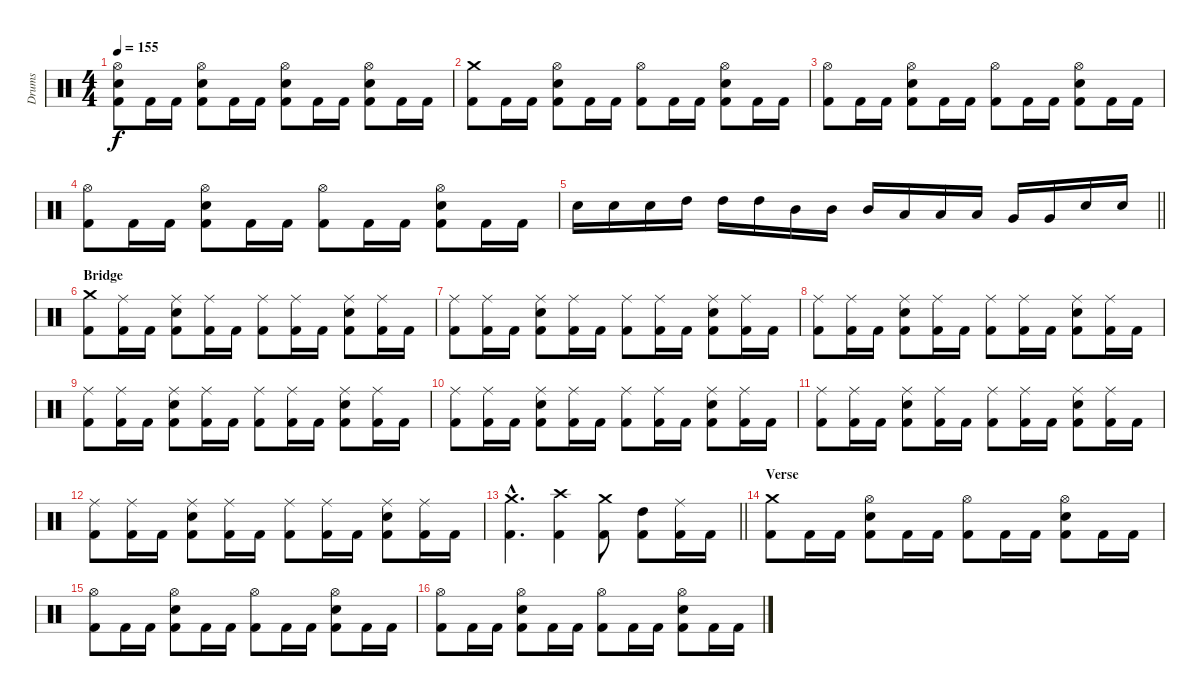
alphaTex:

\track ("Drums" "Drums") {instrument percussion}
\staff {score}
\articulation defaults
\ts (4 4)
\tempo 155
\clef neutral
\ks c
("Hi-Hat (open)" "Electric Snare (hit)" "Kick (hit) 2").8{dy f} "Kick (hit) 2".16 "Kick (hit) 2".16 ("Hi-Hat (open)" "Electric Snare (hit)" "Kick (hit) 2").8 "Kick (hit) 2".16 "Kick (hit) 2".16 ("Hi-Hat (open)" "Electric Snare (hit)" "Kick (hit) 2").8 "Kick (hit) 2".16 "Kick (hit) 2".16 ("Hi-Hat (open)" "Electric Snare (hit)" "Kick (hit) 2").8 "Kick (hit) 2".16 "Kick (hit) 2".16 |
("Crash medium (hit)" "Kick (hit) 2").8 "Kick (hit) 2".16 "Kick (hit) 2".16 ("Hi-Hat (open)" "Electric Snare (hit)" "Kick (hit) 2").8 "Kick (hit) 2".16 "Kick (hit) 2".16 ("Hi-Hat (open)" "Kick (hit) 2").8 "Kick (hit) 2".16 "Kick (hit) 2".16 ("Hi-Hat (open)" "Electric Snare (hit)" "Kick (hit) 2").8 "Kick (hit) 2".16 "Kick (hit) 2".16 |
("Hi-Hat (open)" "Kick (hit) 2").8 "Kick (hit) 2".16 "Kick (hit) 2".16 ("Hi-Hat (open)" "Electric Snare (hit)" "Kick (hit) 2").8 "Kick (hit) 2".16 "Kick (hit) 2".16 ("Hi-Hat (open)" "Kick (hit) 2").8 "Kick (hit) 2".16 "Kick (hit) 2".16 ("Hi-Hat (open)" "Electric Snare (hit)" "Kick (hit) 2").8 "Kick (hit) 2".16 "Kick (hit) 2".16 |
("Hi-Hat (open)" "Kick (hit) 2").8 "Kick (hit) 2".16 "Kick (hit) 2".16 ("Hi-Hat (open)" "Electric Snare (hit)" "Kick (hit) 2").8 "Kick (hit) 2".16 "Kick (hit) 2".16 ("Hi-Hat (open)" "Kick (hit) 2").8 "Kick (hit) 2".16 "Kick (hit) 2".16 ("Hi-Hat (open)" "Electric Snare (hit)" "Kick (hit) 2").8 "Kick (hit) 2".16 "Kick (hit) 2".16 |
\barLineRight lightlight "Electric Snare (hit)".16 "Electric Snare (hit)".16 "Electric Snare (hit)".16 "High Tom (hit)".16 "High Tom (hit)".16 "High Tom (hit)".16 "Mid Tom (hit)".16 "Mid Tom (hit)".16 "Mid Tom (hit)".16 "Low Tom (hit)".16 "Low Tom (hit)".16 "Low Tom (hit)".16 "Very Low Tom (hit)".16 "Very Low Tom (hit)".16 "Electric Snare (hit)".16 "Electric Snare (hit)".16
|
\section ("" "Bridge")
("Crash medium (hit)" "Kick (hit) 2").8 ("Ride (middle)" "Kick (hit) 2").16 "Kick (hit) 2".16 ("Ride (middle)" "Electric Snare (hit)" "Kick (hit) 2").8 ("Ride (middle)" "Kick (hit) 2").16 "Kick (hit) 2".16 ("Ride (middle)" "Kick (hit) 2").8 ("Ride (middle)" "Kick (hit) 2").16 "Kick (hit) 2".16 ("Ride (middle)" "Electric Snare (hit)" "Kick (hit) 2").8 ("Ride (middle)" "Kick (hit) 2").16 "Kick (hit) 2".16 |
("Ride (middle)" "Kick (hit) 2").8 ("Ride (middle)" "Kick (hit) 2").16 "Kick (hit) 2".16 ("Ride (middle)" "Electric Snare (hit)" "Kick (hit) 2").8 ("Ride (middle)" "Kick (hit) 2").16 "Kick (hit) 2".16 ("Ride (middle)" "Kick (hit) 2").8 ("Ride (middle)" "Kick (hit) 2").16 "Kick (hit) 2".16 ("Ride (middle)" "Electric Snare (hit)" "Kick (hit) 2").8 ("Ride (middle)" "Kick (hit) 2").16 "Kick (hit) 2".16 |
("Ride (middle)" "Kick (hit) 2").8 ("Ride (middle)" "Kick (hit) 2").16 "Kick (hit) 2".16 ("Ride (middle)" "Electric Snare (hit)" "Kick (hit) 2").8 ("Ride (middle)" "Kick (hit) 2").16 "Kick (hit) 2".16 ("Ride (middle)" "Kick (hit) 2").8 ("Ride (middle)" "Kick (hit) 2").16 "Kick (hit) 2".16 ("Ride (middle)" "Electric Snare (hit)" "Kick (hit) 2").8 ("Ride (middle)" "Kick (hit) 2").16 "Kick (hit) 2".16 |
("Ride (middle)" "Kick (hit) 2").8 ("Ride (middle)" "Kick (hit) 2").16 "Kick (hit) 2".16 ("Ride (middle)" "Electric Snare (hit)" "Kick (hit) 2").8 ("Ride (middle)" "Kick (hit) 2").16 "Kick (hit) 2".16 ("Ride (middle)" "Kick (hit) 2").8 ("Ride (middle)" "Kick (hit) 2").16 "Kick (hit) 2".16 ("Ride (middle)" "Electric Snare (hit)" "Kick (hit) 2").8 ("Ride (middle)" "Kick (hit) 2").16 "Kick (hit) 2".16 |
("Ride (middle)" "Kick (hit) 2").8 ("Ride (middle)" "Kick (hit) 2").16 "Kick (hit) 2".16 ("Ride (middle)" "Electric Snare (hit)" "Kick (hit) 2").8 ("Ride (middle)" "Kick (hit) 2").16 "Kick (hit) 2".16 ("Ride (middle)" "Kick (hit) 2").8 ("Ride (middle)" "Kick (hit) 2").16 "Kick (hit) 2".16 ("Ride (middle)" "Electric Snare (hit)" "Kick (hit) 2").8 ("Ride (middle)" "Kick (hit) 2").16 "Kick (hit) 2".16 |
("Ride (middle)" "Kick (hit) 2").8 ("Ride (middle)" "Kick (hit) 2").16 "Kick (hit) 2".16 ("Ride (middle)" "Electric Snare (hit)" "Kick (hit) 2").8 ("Ride (middle)" "Kick (hit) 2").16 "Kick (hit) 2".16 ("Ride (middle)" "Kick (hit) 2").8 ("Ride (middle)" "Kick (hit) 2").16 "Kick (hit) 2".16 ("Ride (middle)" "Electric Snare (hit)" "Kick (hit) 2").8 ("Ride (middle)" "Kick (hit) 2").16 "Kick (hit) 2".16 |
("Ride (middle)" "Kick (hit) 2").8 ("Ride (middle)" "Kick (hit) 2").16 "Kick (hit) 2".16 ("Ride (middle)" "Electric Snare (hit)" "Kick (hit) 2").8 ("Ride (middle)" "Kick (hit) 2").16 "Kick (hit) 2".16 ("Ride (middle)" "Kick (hit) 2").8 ("Ride (middle)" "Kick (hit) 2").16 "Kick (hit) 2".16 ("Ride (middle)" "Electric Snare (hit)" "Kick (hit) 2").8 ("Ride (middle)" "Kick (hit) 2").16 "Kick (hit) 2".16 |
\barLineRight lightlight
("Crash medium (hit)"{hac} "Kick (hit) 2"{hac}).4{d} ("Crash high (hit)" "Kick (hit) 2").4 ("Crash medium (hit)" "Kick (hit) 2").8 ("High Tom (hit)" "Kick (hit) 2").8 ("Ride (middle)" "Kick (hit) 2").16 "Kick (hit) 2".16 |
\section ("" "Verse")
("Crash medium (hit)" "Kick (hit) 2").8 "Kick (hit) 2".16 "Kick (hit) 2".16 ("Hi-Hat (open)" "Electric Snare (hit)" "Kick (hit) 2").8 "Kick (hit) 2".16 "Kick (hit) 2".16 ("Hi-Hat (open)" "Kick (hit) 2").8 "Kick (hit) 2".16 "Kick (hit) 2".16 ("Hi-Hat (open)" "Electric Snare (hit)" "Kick (hit) 2").8 "Kick (hit) 2".16 "Kick (hit) 2".16 |
("Hi-Hat (open)" "Kick (hit) 2").8 "Kick (hit) 2".16 "Kick (hit) 2".16 ("Hi-Hat (open)" "Electric Snare (hit)" "Kick (hit) 2").8 "Kick (hit) 2".16 "Kick (hit) 2".16 ("Hi-Hat (open)" "Kick (hit) 2").8 "Kick (hit) 2".16 "Kick (hit) 2".16 ("Hi-Hat (open)" "Electric Snare (hit)" "Kick (hit) 2").8 "Kick (hit) 2".16 "Kick (hit) 2".16 |
("Hi-Hat (open)" "Kick (hit) 2").8 "Kick (hit) 2".16 "Kick (hit) 2".16 ("Hi-Hat (open)" "Electric Snare (hit)" "Kick (hit) 2").8 "Kick (hit) 2".16 "Kick (hit) 2".16 ("Hi-Hat (open)" "Kick (hit) 2").8 "Kick (hit) 2".16 "Kick (hit) 2".16 ("Hi-Hat (open)" "Electric Snare (hit)" "Kick (hit) 2").8 "Kick (hit) 2".16 "Kick (hit) 2".16
